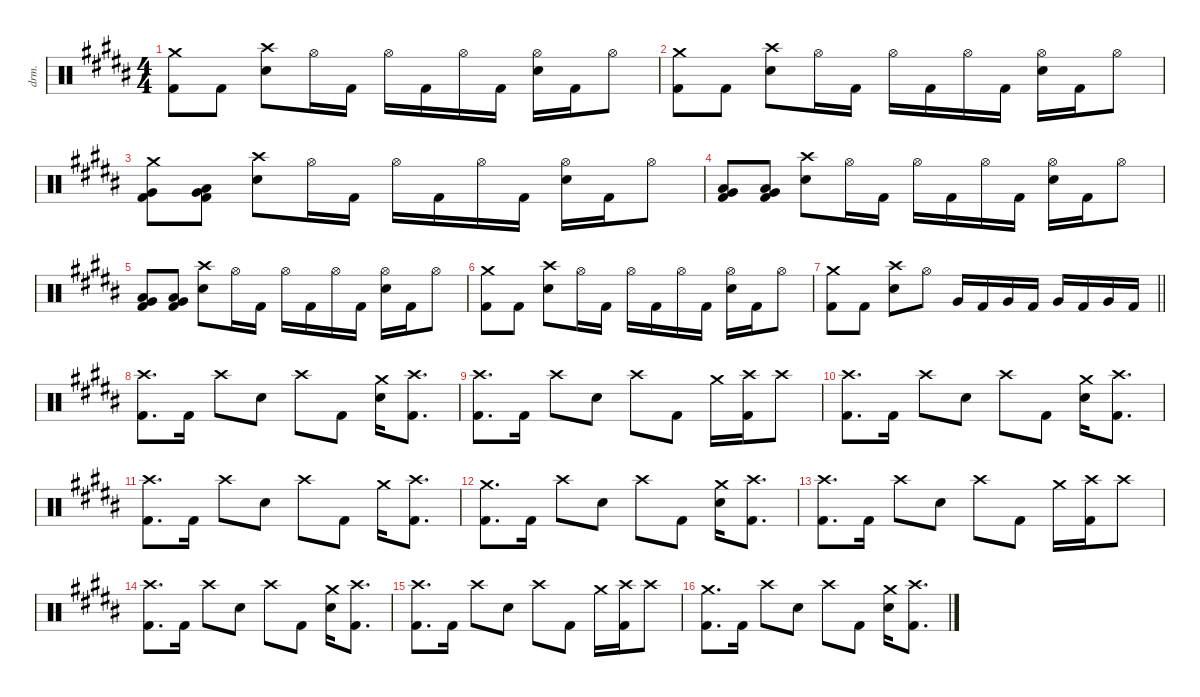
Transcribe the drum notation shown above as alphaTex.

\defaultSystemsLayout 4
\hideDynamics
\bracketExtendMode nobrackets
\otherSystemsTrackNameOrientation horizontal
\track ("Drums" "drm.") {defaultSystemsLayout 4 instrument percussion}
\staff {score}
\articulation defaults
\ts (4 4)
\tempo (71 hide)
\clef neutral
\ks b
("Crash medium (hit)"{acc forcenatural} "Kick (hit) 2"{acc forcenatural}).8{dy f beam Down} "Kick (hit) 2"{acc forcenatural}.8{beam Down} ("Crash high (hit)"{acc forcenatural} "Snare (hit) 2"{acc forcenatural}).8{beam Down} "Hi-Hat (open)"{acc forcenatural}.16{beam Down} "Kick (hit) 2"{acc forcenatural}.16{beam Down} "Hi-Hat (open)"{acc forcenatural}.16{beam Down} "Kick (hit) 2"{acc forcenatural}.16{beam Down} "Hi-Hat (open)"{acc forcenatural}.16{beam Down} "Kick (hit) 2"{acc forcenatural}.16{beam Down} ("Hi-Hat (open)"{acc forcenatural} "Snare (hit) 2"{acc forcenatural}).16{beam Down} "Kick (hit) 2"{acc forcenatural}.16{beam Down} "Hi-Hat (open)"{acc forcenatural}.8{beam Down} |
("Crash medium (hit)"{acc forcenatural} "Kick (hit) 2"{acc forcenatural}).8{beam Down} "Kick (hit) 2"{acc forcenatural}.8{beam Down} ("Crash high (hit)"{acc forcenatural} "Snare (hit) 2"{acc forcenatural}).8{beam Down} "Hi-Hat (open)"{acc forcenatural}.16{beam Down} "Kick (hit) 2"{acc forcenatural}.16{beam Down} "Hi-Hat (open)"{acc forcenatural}.16{beam Down} "Kick (hit) 2"{acc forcenatural}.16{beam Down} "Hi-Hat (open)"{acc forcenatural}.16{beam Down} "Kick (hit) 2"{acc forcenatural}.16{beam Down} ("Hi-Hat (open)"{acc forcenatural} "Snare (hit) 2"{acc forcenatural}).16{beam Down} "Kick (hit) 2"{acc forcenatural}.16{beam Down} "Hi-Hat (open)"{acc forcenatural}.8{beam Down} |
("Crash medium (hit)"{acc forcenatural} "Very Low Tom (hit)"{acc forcenatural} "Kick (hit) 2"{acc forcenatural}).8{beam Down} ("Very Low Tom (hit)"{acc forcenatural} "Low Floor Tom (hit)"{acc forcenatural} "Kick (hit) 2"{acc forcenatural}).8{beam Down} ("Crash high (hit)"{acc forcenatural} "Snare (hit) 2"{acc forcenatural}).8{beam Down} "Hi-Hat (open)"{acc forcenatural}.16{beam Down} "Kick (hit) 2"{acc forcenatural}.16{beam Down} "Hi-Hat (open)"{acc forcenatural}.16{beam Down} "Kick (hit) 2"{acc forcenatural}.16{beam Down} "Hi-Hat (open)"{acc forcenatural}.16{beam Down} "Kick (hit) 2"{acc forcenatural}.16{beam Down} ("Hi-Hat (open)"{acc forcenatural} "Snare (hit) 2"{acc forcenatural}).16{beam Down} "Kick (hit) 2"{acc forcenatural}.16{beam Down} "Hi-Hat (open)"{acc forcenatural}.8{beam Down} |
("Low Tom (hit)"{acc forcenatural} "Very Low Tom (hit)"{acc forcenatural} "Kick (hit) 2"{acc forcenatural}).8{beam Up} ("Very Low Tom (hit)"{acc forcenatural} "Low Floor Tom (hit)"{acc forcenatural} "Kick (hit) 2"{acc forcenatural}).8{beam Up} ("Crash high (hit)"{acc forcenatural} "Snare (hit) 2"{acc forcenatural}).8{beam Down} "Hi-Hat (open)"{acc forcenatural}.16{beam Down} "Kick (hit) 2"{acc forcenatural}.16{beam Down} "Hi-Hat (open)"{acc forcenatural}.16{beam Down} "Kick (hit) 2"{acc forcenatural}.16{beam Down} "Hi-Hat (open)"{acc forcenatural}.16{beam Down} "Kick (hit) 2"{acc forcenatural}.16{beam Down} ("Hi-Hat (open)"{acc forcenatural} "Snare (hit) 2"{acc forcenatural}).16{beam Down} "Kick (hit) 2"{acc forcenatural}.16{beam Down} "Hi-Hat (open)"{acc forcenatural}.8{beam Down} |
("Low Tom (hit)"{acc forcenatural} "Very Low Tom (hit)"{acc forcenatural} "Kick (hit) 2"{acc forcenatural}).8{beam Up} ("Very Low Tom (hit)"{acc forcenatural} "Low Floor Tom (hit)"{acc forcenatural} "Kick (hit) 2"{acc forcenatural}).8{beam Up} ("Crash high (hit)"{acc forcenatural} "Snare (hit) 2"{acc forcenatural}).8{beam Down} "Hi-Hat (open)"{acc forcenatural}.16{beam Down} "Kick (hit) 2"{acc forcenatural}.16{beam Down} "Hi-Hat (open)"{acc forcenatural}.16{beam Down} "Kick (hit) 2"{acc forcenatural}.16{beam Down} "Hi-Hat (open)"{acc forcenatural}.16{beam Down} "Kick (hit) 2"{acc forcenatural}.16{beam Down} ("Hi-Hat (open)"{acc forcenatural} "Snare (hit) 2"{acc forcenatural}).16{beam Down} "Kick (hit) 2"{acc forcenatural}.16{beam Down} "Hi-Hat (open)"{acc forcenatural}.8{beam Down} |
("Crash medium (hit)"{acc forcenatural} "Kick (hit) 2"{acc forcenatural}).8{beam Down} "Kick (hit) 2"{acc forcenatural}.8{beam Down} ("Crash high (hit)"{acc forcenatural} "Snare (hit) 2"{acc forcenatural}).8{beam Down} "Hi-Hat (open)"{acc forcenatural}.16{beam Down} "Kick (hit) 2"{acc forcenatural}.16{beam Down} "Hi-Hat (open)"{acc forcenatural}.16{beam Down} "Kick (hit) 2"{acc forcenatural}.16{beam Down} "Hi-Hat (open)"{acc forcenatural}.16{beam Down} "Kick (hit) 2"{acc forcenatural}.16{beam Down} ("Hi-Hat (open)"{acc forcenatural} "Snare (hit) 2"{acc forcenatural}).16{beam Down} "Kick (hit) 2"{acc forcenatural}.16{beam Down} "Hi-Hat (open)"{acc forcenatural}.8{beam Down} |
\tempo (68 1 hide)
\barLineRight lightlight
("Crash medium (hit)"{acc forcenatural} "Kick (hit) 2"{acc forcenatural}).8{beam Down} "Kick (hit) 2"{acc forcenatural}.8{beam Down} ("Crash high (hit)"{acc forcenatural} "Snare (hit) 2"{acc forcenatural}).8{beam Down} "Hi-Hat (open)"{acc forcenatural}.8{beam Down} "Very Low Tom (hit)"{acc forcenatural}.16{beam Up} "Kick (hit) 2"{acc forcenatural}.16{beam Up} "Very Low Tom (hit)"{acc forcenatural}.16{beam Up} "Kick (hit) 2"{acc forcenatural}.16{beam Up} "Very Low Tom (hit)"{acc forcenatural}.16{beam Up} "Kick (hit) 2"{acc forcenatural}.16{beam Up} "Very Low Tom (hit)"{acc forcenatural}.16{beam Up} "Kick (hit) 2"{acc forcenatural}.16{beam Up} |
("Crash high (hit)"{acc forcenatural} "Kick (hit) 2"{acc forcenatural}).8{d beam Down} "Kick (hit) 2"{acc forcenatural}.16{beam Down} "Crash high (hit)"{acc forcenatural}.8{beam Down} "Snare (hit) 2"{acc forcenatural}.8{beam Down} "Crash high (hit)"{acc forcenatural}.8{beam Down} "Kick (hit) 2"{acc forcenatural}.8{beam Down} ("Crash medium (hit)"{acc forcenatural} "Snare (hit) 2"{acc forcenatural}).16{beam Down} ("Crash high (hit)"{acc forcenatural} "Kick (hit) 2"{acc forcenatural}).8{d beam Down} |
("Crash high (hit)"{acc forcenatural} "Kick (hit) 2"{acc forcenatural}).8{d beam Down} "Kick (hit) 2"{acc forcenatural}.16{beam Down} "Crash high (hit)"{acc forcenatural}.8{beam Down} "Snare (hit) 2"{acc forcenatural}.8{beam Down} "Crash high (hit)"{acc forcenatural}.8{beam Down} "Kick (hit) 2"{acc forcenatural}.8{beam Down} "Crash medium (hit)"{acc forcenatural}.16{beam Down} ("Crash high (hit)"{acc forcenatural} "Kick (hit) 2"{acc forcenatural}).16{beam Down} "Crash high (hit)"{acc forcenatural}.8{beam Down} |
("Crash high (hit)"{acc forcenatural} "Kick (hit) 2"{acc forcenatural}).8{d beam Down} "Kick (hit) 2"{acc forcenatural}.16{beam Down} "Crash high (hit)"{acc forcenatural}.8{beam Down} "Snare (hit) 2"{acc forcenatural}.8{beam Down} "Crash high (hit)"{acc forcenatural}.8{beam Down} "Kick (hit) 2"{acc forcenatural}.8{beam Down} ("Crash medium (hit)"{acc forcenatural} "Snare (hit) 2"{acc forcenatural}).16{beam Down} ("Crash high (hit)"{acc forcenatural} "Kick (hit) 2"{acc forcenatural}).8{d beam Down} |
("Crash high (hit)"{acc forcenatural} "Kick (hit) 2"{acc forcenatural}).8{d beam Down} "Kick (hit) 2"{acc forcenatural}.16{beam Down} "Crash high (hit)"{acc forcenatural}.8{beam Down} "Snare (hit) 2"{acc forcenatural}.8{beam Down} "Crash high (hit)"{acc forcenatural}.8{beam Down} "Kick (hit) 2"{acc forcenatural}.8{beam Down} "Crash medium (hit)"{acc forcenatural}.16{beam Down} ("Crash high (hit)"{acc forcenatural} "Kick (hit) 2"{acc forcenatural}).8{d beam Down} |
("Crash medium (hit)"{acc forcenatural} "Kick (hit) 2"{acc forcenatural}).8{d beam Down} "Kick (hit) 2"{acc forcenatural}.16{beam Down} "Crash high (hit)"{acc forcenatural}.8{beam Down} "Snare (hit) 2"{acc forcenatural}.8{beam Down} "Crash high (hit)"{acc forcenatural}.8{beam Down} "Kick (hit) 2"{acc forcenatural}.8{beam Down} ("Crash medium (hit)"{acc forcenatural} "Snare (hit) 2"{acc forcenatural}).16{beam Down} ("Crash high (hit)"{acc forcenatural} "Kick (hit) 2"{acc forcenatural}).8{d beam Down} |
("Crash high (hit)"{acc forcenatural} "Kick (hit) 2"{acc forcenatural}).8{d beam Down} "Kick (hit) 2"{acc forcenatural}.16{beam Down} "Crash high (hit)"{acc forcenatural}.8{beam Down} "Snare (hit) 2"{acc forcenatural}.8{beam Down} "Crash high (hit)"{acc forcenatural}.8{beam Down} "Kick (hit) 2"{acc forcenatural}.8{beam Down} "Crash medium (hit)"{acc forcenatural}.16{beam Down} ("Crash high (hit)"{acc forcenatural} "Kick (hit) 2"{acc forcenatural}).16{beam Down} "Crash high (hit)"{acc forcenatural}.8{beam Down} |
("Crash high (hit)"{acc forcenatural} "Kick (hit) 2"{acc forcenatural}).8{d beam Down} "Kick (hit) 2"{acc forcenatural}.16{beam Down} "Crash high (hit)"{acc forcenatural}.8{beam Down} "Snare (hit) 2"{acc forcenatural}.8{beam Down} "Crash high (hit)"{acc forcenatural}.8{beam Down} "Kick (hit) 2"{acc forcenatural}.8{beam Down} ("Crash medium (hit)"{acc forcenatural} "Snare (hit) 2"{acc forcenatural}).16{beam Down} ("Crash high (hit)"{acc forcenatural} "Kick (hit) 2"{acc forcenatural}).8{d beam Down} |
("Crash high (hit)"{acc forcenatural} "Kick (hit) 2"{acc forcenatural}).8{d beam Down} "Kick (hit) 2"{acc forcenatural}.16{beam Down} "Crash high (hit)"{acc forcenatural}.8{beam Down} "Snare (hit) 2"{acc forcenatural}.8{beam Down} "Crash high (hit)"{acc forcenatural}.8{beam Down} "Kick (hit) 2"{acc forcenatural}.8{beam Down} "Crash medium (hit)"{acc forcenatural}.16{beam Down} ("Crash high (hit)"{acc forcenatural} "Kick (hit) 2"{acc forcenatural}).16{beam Down} "Crash high (hit)"{acc forcenatural}.8{beam Down} |
("Crash medium (hit)"{acc forcenatural} "Kick (hit) 2"{acc forcenatural}).8{d beam Down} "Kick (hit) 2"{acc forcenatural}.16{beam Down} "Crash high (hit)"{acc forcenatural}.8{beam Down} "Snare (hit) 2"{acc forcenatural}.8{beam Down} "Crash high (hit)"{acc forcenatural}.8{beam Down} "Kick (hit) 2"{acc forcenatural}.8{beam Down} ("Crash medium (hit)"{acc forcenatural} "Snare (hit) 2"{acc forcenatural}).16{beam Down} ("Crash high (hit)"{acc forcenatural} "Kick (hit) 2"{acc forcenatural}).8{d beam Down}
